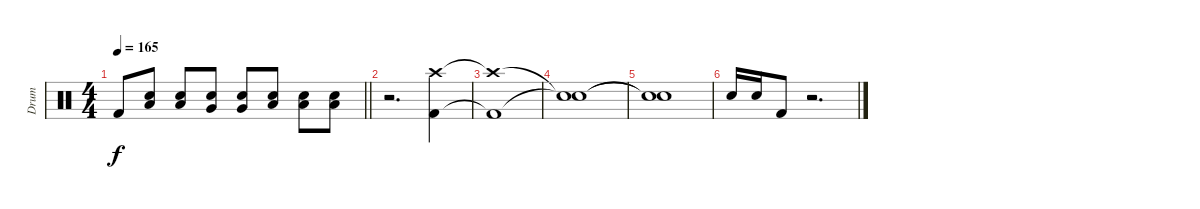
\track ("Drum" "Drum") {instrument percussion}
\staff {score}
\articulation defaults
\ts (4 4)
\tempo 165
\clef neutral
\barLineRight lightlight
\ks c "Kick (hit) 2".8{dy f}
("Electric Snare (hit)" "Low Tom (hit)").8 ("Electric Snare (hit)" "Low Tom (hit)").8 ("Electric Snare (hit)" "Very Low Tom (hit)").8 ("Electric Snare (hit)" "Very Low Tom (hit)").8 ("Electric Snare (hit)" "Low Floor Tom (hit)").8 ("Electric Snare (hit)" "Low Floor Tom (hit)").8 ("Electric Snare (hit)" "Low Floor Tom (hit)").8 |
r.2{d} ("Crash high (hit)" "Kick (hit) 2").4 |
("Crash high (hit)"{t} "Kick (hit) 2"{t}).1 |
("Snare (hit)"{t} "Snare (hit)"{t}).1 |
("Snare (hit)"{t} "Snare (hit)"{t}).1 |
"Electric Snare (hit)".16 "Electric Snare (hit)".16 "Kick (hit) 2".8 r.2{d}
